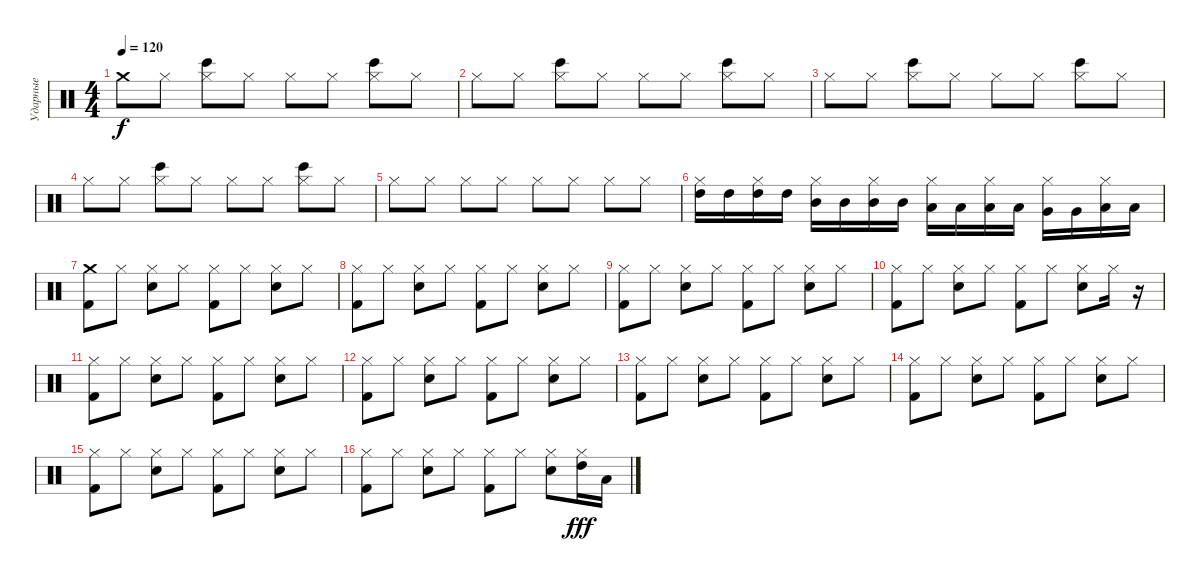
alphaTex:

\track ("Ударные" "Ударные") {instrument percussion}
\staff {score}
\articulation defaults
\ts (4 4)
\tempo 120
\clef neutral
\ks c "Crash medium (hit)".8{dy f} "Hi-Hat (closed)".8
("Hi-Hat (closed)" "Bongo High (hit)").8 "Hi-Hat (closed)".8 "Hi-Hat (closed)".8 "Hi-Hat (closed)".8 ("Hi-Hat (closed)" "Bongo High (hit)").8 "Hi-Hat (closed)".8 |
"Hi-Hat (closed)".8 "Hi-Hat (closed)".8 ("Hi-Hat (closed)" "Bongo High (hit)").8 "Hi-Hat (closed)".8 "Hi-Hat (closed)".8 "Hi-Hat (closed)".8 ("Hi-Hat (closed)" "Bongo High (hit)").8 "Hi-Hat (closed)".8 |
"Hi-Hat (closed)".8 "Hi-Hat (closed)".8 ("Hi-Hat (closed)" "Bongo High (hit)").8 "Hi-Hat (closed)".8 "Hi-Hat (closed)".8 "Hi-Hat (closed)".8 ("Hi-Hat (closed)" "Bongo High (hit)").8 "Hi-Hat (closed)".8 |
"Hi-Hat (closed)".8 "Hi-Hat (closed)".8 ("Hi-Hat (closed)" "Bongo High (hit)").8 "Hi-Hat (closed)".8 "Hi-Hat (closed)".8 "Hi-Hat (closed)".8 ("Hi-Hat (closed)" "Bongo High (hit)").8 "Hi-Hat (closed)".8 |
"Hi-Hat (closed)".8 "Hi-Hat (closed)".8 "Hi-Hat (closed)".8 "Hi-Hat (closed)".8 "Hi-Hat (closed)".8 "Hi-Hat (closed)".8 "Hi-Hat (closed)".8 "Hi-Hat (closed)".8 |
("High Tom (hit)" "Hi-Hat (closed)").16 "High Tom (hit)".16 ("High Tom (hit)" "Hi-Hat (closed)").16 "High Tom (hit)".16 ("Mid Tom (hit)" "Hi-Hat (closed)").16 "Mid Tom (hit)".16 ("Mid Tom (hit)" "Hi-Hat (closed)").16 "Mid Tom (hit)".16 ("Low Tom (hit)" "Hi-Hat (closed)").16 "Low Tom (hit)".16 ("Low Tom (hit)" "Hi-Hat (closed)").16 "Low Tom (hit)".16 ("Very Low Tom (hit)" "Hi-Hat (closed)").16 "Very Low Tom (hit)".16 ("Low Floor Tom (hit)" "Hi-Hat (closed)").16 "Low Floor Tom (hit)".16 |
("Kick (hit) 2" "Crash medium (hit)").8 "Hi-Hat (closed)".8 ("Electric Snare (hit)" "Hi-Hat (closed)").8 "Hi-Hat (closed)".8 ("Kick (hit) 2" "Hi-Hat (closed)").8 "Hi-Hat (closed)".8 ("Electric Snare (hit)" "Hi-Hat (closed)").8 "Hi-Hat (closed)".8 |
("Kick (hit) 2" "Hi-Hat (closed)").8 "Hi-Hat (closed)".8 ("Electric Snare (hit)" "Hi-Hat (closed)").8 "Hi-Hat (closed)".8 ("Kick (hit) 2" "Hi-Hat (closed)").8 "Hi-Hat (closed)".8 ("Electric Snare (hit)" "Hi-Hat (closed)").8 "Hi-Hat (closed)".8 |
("Kick (hit) 2" "Hi-Hat (closed)").8 "Hi-Hat (closed)".8 ("Electric Snare (hit)" "Hi-Hat (closed)").8 "Hi-Hat (closed)".8 ("Kick (hit) 2" "Hi-Hat (closed)").8 "Hi-Hat (closed)".8 ("Electric Snare (hit)" "Hi-Hat (closed)").8 "Hi-Hat (closed)".8 |
("Kick (hit) 2" "Hi-Hat (closed)").8 "Hi-Hat (closed)".8 ("Electric Snare (hit)" "Hi-Hat (closed)").8 "Hi-Hat (closed)".8 ("Kick (hit) 2" "Hi-Hat (closed)").8 "Hi-Hat (closed)".8 ("Electric Snare (hit)" "Hi-Hat (closed)").8 "Hi-Hat (closed)".16 r.16 |
("Kick (hit) 2" "Hi-Hat (closed)").8 "Hi-Hat (closed)".8 ("Electric Snare (hit)" "Hi-Hat (closed)").8 "Hi-Hat (closed)".8 ("Kick (hit) 2" "Hi-Hat (closed)").8 "Hi-Hat (closed)".8 ("Electric Snare (hit)" "Hi-Hat (closed)").8 "Hi-Hat (closed)".8 |
("Kick (hit) 2" "Hi-Hat (closed)").8 "Hi-Hat (closed)".8 ("Electric Snare (hit)" "Hi-Hat (closed)").8 "Hi-Hat (closed)".8 ("Kick (hit) 2" "Hi-Hat (closed)").8 "Hi-Hat (closed)".8 ("Electric Snare (hit)" "Hi-Hat (closed)").8 "Hi-Hat (closed)".8 |
("Kick (hit) 2" "Hi-Hat (closed)").8 "Hi-Hat (closed)".8 ("Electric Snare (hit)" "Hi-Hat (closed)").8 "Hi-Hat (closed)".8 ("Kick (hit) 2" "Hi-Hat (closed)").8 "Hi-Hat (closed)".8 ("Electric Snare (hit)" "Hi-Hat (closed)").8 "Hi-Hat (closed)".8 |
("Kick (hit) 2" "Hi-Hat (closed)").8 "Hi-Hat (closed)".8 ("Electric Snare (hit)" "Hi-Hat (closed)").8 "Hi-Hat (closed)".8 ("Kick (hit) 2" "Hi-Hat (closed)").8 "Hi-Hat (closed)".8 ("Electric Snare (hit)" "Hi-Hat (closed)").8 "Hi-Hat (closed)".8 |
("Kick (hit) 2" "Hi-Hat (closed)").8 "Hi-Hat (closed)".8 ("Electric Snare (hit)" "Hi-Hat (closed)").8 "Hi-Hat (closed)".8 ("Kick (hit) 2" "Hi-Hat (closed)").8 "Hi-Hat (closed)".8 ("Electric Snare (hit)" "Hi-Hat (closed)").8 "Hi-Hat (closed)".8 |
("Kick (hit) 2" "Hi-Hat (closed)").8 "Hi-Hat (closed)".8 ("Electric Snare (hit)" "Hi-Hat (closed)").8 "Hi-Hat (closed)".8 ("Kick (hit) 2" "Hi-Hat (closed)").8 "Hi-Hat (closed)".8 ("Electric Snare (hit)" "Hi-Hat (closed)").8 ("Hi-Hat (closed)" "High Tom (hit)").16{dy fff} "Low Floor Tom (hit)".16
